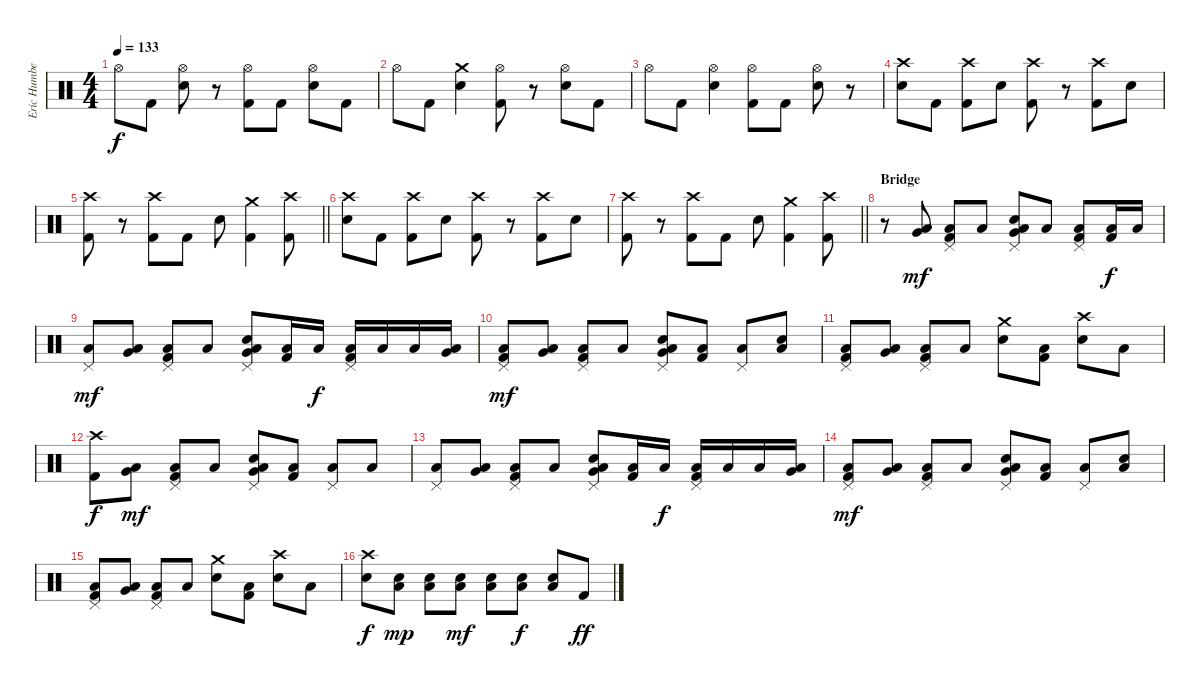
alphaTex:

\track ("Eric Humbert (Drums)" "Eric Humbe") {instrument percussion}
\staff {score}
\articulation defaults
\ts (4 4)
\tempo 133
\clef neutral
\ks c "Hi-Hat (open)".8{dy f} "Kick (hit) 2".8
("Hi-Hat (open)" "Electric Snare (hit)").8 r.8 ("Hi-Hat (open)" "Kick (hit) 2").8 "Kick (hit) 2".8 ("Hi-Hat (open)" "Electric Snare (hit)").8 "Kick (hit) 2".8 |
"Hi-Hat (open)".8 "Kick (hit) 2".8 ("Crash medium (hit)" "Electric Snare (hit)").4 ("Hi-Hat (open)" "Kick (hit) 2").8 r.8 ("Hi-Hat (open)" "Electric Snare (hit)").8 "Kick (hit) 2".8 |
"Hi-Hat (open)".8 "Kick (hit) 2".8 ("Hi-Hat (open)" "Electric Snare (hit)").4 ("Hi-Hat (open)" "Kick (hit) 2").8 "Kick (hit) 2".8 ("Hi-Hat (open)" "Electric Snare (hit)").8 r.8 |
("Crash high (hit)" "Electric Snare (hit)").8 "Kick (hit) 2".8 ("Crash high (hit)" "Kick (hit) 2").8 "Electric Snare (hit)".8 ("Crash high (hit)" "Kick (hit) 2").8 r.8 ("Crash high (hit)" "Kick (hit) 2").8 "Electric Snare (hit)".8 |
\barLineRight lightlight
("Crash high (hit)" "Kick (hit) 2").8 r.8 ("Crash high (hit)" "Kick (hit) 2").8 "Kick (hit) 2".8 "Electric Snare (hit)".8 ("Crash medium (hit)" "Kick (hit) 2").4 ("Crash high (hit)" "Kick (hit) 2").8 |
("Crash high (hit)" "Electric Snare (hit)").8 "Kick (hit) 2".8 ("Crash high (hit)" "Kick (hit) 2").8 "Electric Snare (hit)".8 ("Crash high (hit)" "Kick (hit) 2").8 r.8 ("Crash high (hit)" "Kick (hit) 2").8 "Electric Snare (hit)".8 |
\barLineRight lightlight
("Crash high (hit)" "Kick (hit) 2").8 r.8 ("Crash high (hit)" "Kick (hit) 2").8 "Kick (hit) 2".8 "Electric Snare (hit)".8 ("Crash medium (hit)" "Kick (hit) 2").4 ("Crash high (hit)" "Kick (hit) 2").8 |
\section ("" "Bridge")
r.8 ("Very Low Tom (hit)" "Low Floor Tom (hit)").8{dy mf} ("Pedal Hi-Hat (hit)" "Low Floor Tom (hit)" "Kick (hit) 2").8 "Low Floor Tom (hit)".8 ("Pedal Hi-Hat (hit)" "Very Low Tom (hit)" "Low Floor Tom (hit)" "Electric Snare (hit)").8 "Low Floor Tom (hit)".8 ("Pedal Hi-Hat (hit)" "Low Floor Tom (hit)" "Kick (hit) 2").8 ("Low Floor Tom (hit)" "Kick (hit) 2").16{dy f} "Low Floor Tom (hit)".16 |
("Pedal Hi-Hat (hit)" "Low Floor Tom (hit)").8{dy mf} ("Very Low Tom (hit)" "Low Floor Tom (hit)").8 ("Pedal Hi-Hat (hit)" "Low Floor Tom (hit)" "Kick (hit) 2").8 "Low Floor Tom (hit)".8 ("Pedal Hi-Hat (hit)" "Very Low Tom (hit)" "Low Floor Tom (hit)" "Electric Snare (hit)").8 ("Low Floor Tom (hit)" "Kick (hit) 2").16 "Low Floor Tom (hit)".16{dy f} ("Pedal Hi-Hat (hit)" "Low Floor Tom (hit)" "Kick (hit) 2").16 "Low Floor Tom (hit)".16 "Low Floor Tom (hit)".16 ("Very Low Tom (hit)" "Low Floor Tom (hit)").16 |
("Pedal Hi-Hat (hit)" "Low Floor Tom (hit)" "Kick (hit) 2").8{dy mf} ("Very Low Tom (hit)" "Low Floor Tom (hit)").8 ("Pedal Hi-Hat (hit)" "Low Floor Tom (hit)" "Kick (hit) 2").8 "Low Floor Tom (hit)".8 ("Pedal Hi-Hat (hit)" "Very Low Tom (hit)" "Low Floor Tom (hit)" "Electric Snare (hit)").8 ("Low Floor Tom (hit)" "Kick (hit) 2").8 ("Pedal Hi-Hat (hit)" "Low Floor Tom (hit)").8 ("Low Floor Tom (hit)" "Electric Snare (hit)").8 |
("Pedal Hi-Hat (hit)" "Low Floor Tom (hit)" "Kick (hit) 2").8 ("Very Low Tom (hit)" "Low Floor Tom (hit)").8 ("Pedal Hi-Hat (hit)" "Low Floor Tom (hit)" "Kick (hit) 2").8 "Low Floor Tom (hit)".8 ("Crash medium (hit)" "Electric Snare (hit)").8 ("Low Floor Tom (hit)" "Kick (hit) 2").8 ("Crash high (hit)" "Electric Snare (hit)").8 "Low Floor Tom (hit)".8 |
("Crash high (hit)" "Kick (hit) 2").8{dy f} ("Very Low Tom (hit)" "Low Floor Tom (hit)").8{dy mf} ("Pedal Hi-Hat (hit)" "Low Floor Tom (hit)" "Kick (hit) 2").8 "Low Floor Tom (hit)".8 ("Pedal Hi-Hat (hit)" "Very Low Tom (hit)" "Low Floor Tom (hit)" "Electric Snare (hit)").8 ("Low Floor Tom (hit)" "Kick (hit) 2").8 ("Pedal Hi-Hat (hit)" "Low Floor Tom (hit)").8 "Low Floor Tom (hit)".8 |
("Pedal Hi-Hat (hit)" "Low Floor Tom (hit)").8 ("Very Low Tom (hit)" "Low Floor Tom (hit)").8 ("Pedal Hi-Hat (hit)" "Low Floor Tom (hit)" "Kick (hit) 2").8 "Low Floor Tom (hit)".8 ("Pedal Hi-Hat (hit)" "Very Low Tom (hit)" "Low Floor Tom (hit)" "Electric Snare (hit)").8 ("Low Floor Tom (hit)" "Kick (hit) 2").16 "Low Floor Tom (hit)".16{dy f} ("Pedal Hi-Hat (hit)" "Low Floor Tom (hit)" "Kick (hit) 2").16 "Low Floor Tom (hit)".16 "Low Floor Tom (hit)".16 ("Very Low Tom (hit)" "Low Floor Tom (hit)").16 |
("Pedal Hi-Hat (hit)" "Low Floor Tom (hit)" "Kick (hit) 2").8{dy mf} ("Very Low Tom (hit)" "Low Floor Tom (hit)").8 ("Pedal Hi-Hat (hit)" "Low Floor Tom (hit)" "Kick (hit) 2").8 "Low Floor Tom (hit)".8 ("Pedal Hi-Hat (hit)" "Very Low Tom (hit)" "Low Floor Tom (hit)" "Electric Snare (hit)").8 ("Low Floor Tom (hit)" "Kick (hit) 2").8 ("Pedal Hi-Hat (hit)" "Low Floor Tom (hit)").8 ("Low Floor Tom (hit)" "Electric Snare (hit)").8 |
("Pedal Hi-Hat (hit)" "Low Floor Tom (hit)" "Kick (hit) 2").8 ("Very Low Tom (hit)" "Low Floor Tom (hit)").8 ("Pedal Hi-Hat (hit)" "Low Floor Tom (hit)" "Kick (hit) 2").8 "Low Floor Tom (hit)".8 ("Crash medium (hit)" "Electric Snare (hit)").8 ("Low Floor Tom (hit)" "Kick (hit) 2").8 ("Crash high (hit)" "Electric Snare (hit)").8 "Low Floor Tom (hit)".8 |
("Crash high (hit)" "Electric Snare (hit)").8{dy f} ("Low Floor Tom (hit)" "Electric Snare (hit)").8{dy mp} ("Low Floor Tom (hit)" "Electric Snare (hit)").8 ("Low Floor Tom (hit)" "Electric Snare (hit)").8{dy mf} ("Low Floor Tom (hit)" "Electric Snare (hit)").8 ("Low Floor Tom (hit)" "Electric Snare (hit)").8{dy f} ("Low Floor Tom (hit)" "Electric Snare (hit)").8 "Kick (hit) 2".8{dy ff}
